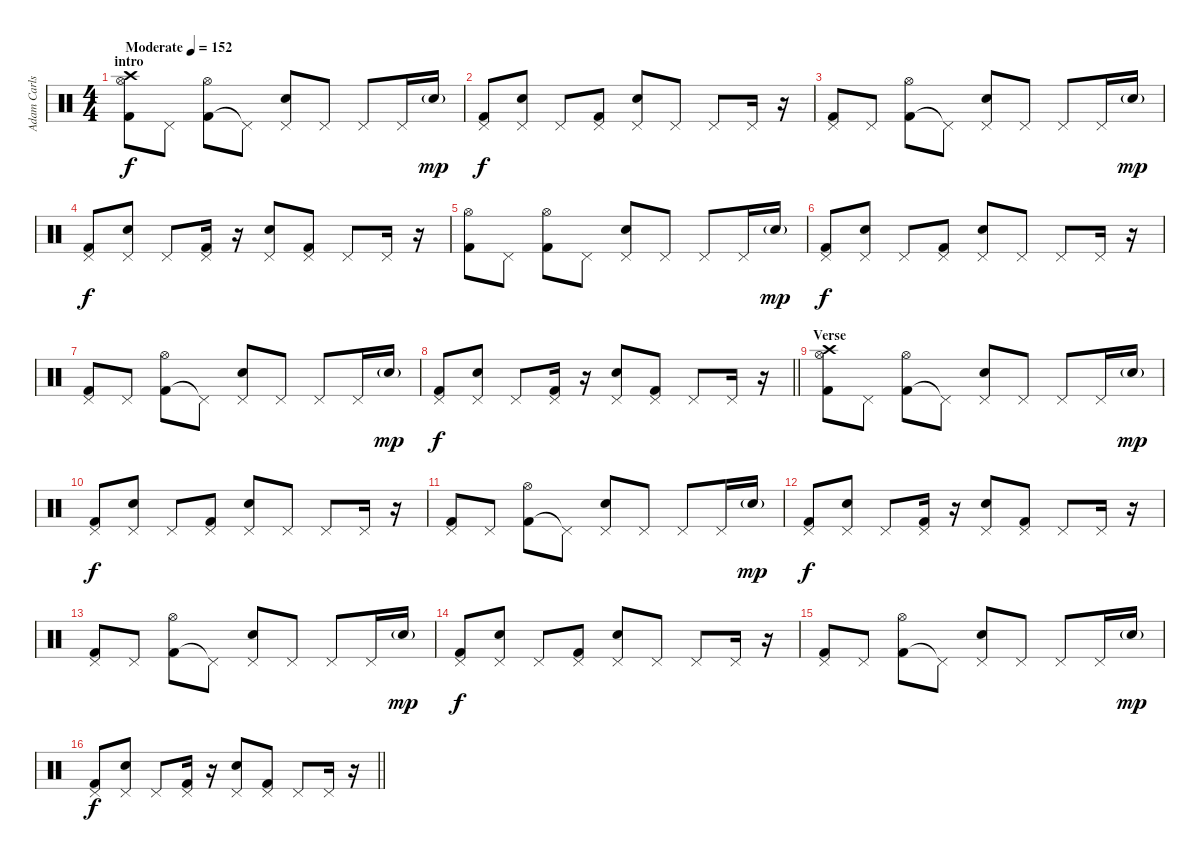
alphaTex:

\track ("Adam Carlson" "Adam Carls") {instrument percussion}
\staff {score}
\articulation defaults
\ts (4 4)
\section ("" "intro")
\tempo (152 "Moderate")
\clef neutral
\ks c
("Crash high (hit)" "Kick (hit) 2" "Hi-Hat (open)").8{dy f} "Pedal Hi-Hat (hit)".8 ("Kick (hit) 2" "Hi-Hat (open)").8 "Pedal Hi-Hat (hit)"{t}.8 ("Snare (hit) 2" "Pedal Hi-Hat (hit)").8 "Pedal Hi-Hat (hit)".8 "Pedal Hi-Hat (hit)".8 "Pedal Hi-Hat (hit)".16 "Snare (hit) 2"{g}.16{dy mp} |
("Kick (hit) 2" "Pedal Hi-Hat (hit)").8{dy f} ("Snare (hit) 2" "Pedal Hi-Hat (hit)").8 "Pedal Hi-Hat (hit)".8 ("Kick (hit) 2" "Pedal Hi-Hat (hit)").8 ("Snare (hit) 2" "Pedal Hi-Hat (hit)").8 "Pedal Hi-Hat (hit)".8 "Pedal Hi-Hat (hit)".8 "Pedal Hi-Hat (hit)".16 r.16 |
("Kick (hit) 2" "Pedal Hi-Hat (hit)").8 "Pedal Hi-Hat (hit)".8 ("Kick (hit) 2" "Hi-Hat (open)").8 "Pedal Hi-Hat (hit)"{t}.8 ("Snare (hit) 2" "Pedal Hi-Hat (hit)").8 "Pedal Hi-Hat (hit)".8 "Pedal Hi-Hat (hit)".8 "Pedal Hi-Hat (hit)".16 "Snare (hit) 2"{g}.16{dy mp} |
("Kick (hit) 2" "Pedal Hi-Hat (hit)").8{dy f} ("Snare (hit) 2" "Pedal Hi-Hat (hit)").8 "Pedal Hi-Hat (hit)".8 ("Kick (hit) 2" "Pedal Hi-Hat (hit)").16 r.16 ("Snare (hit) 2" "Pedal Hi-Hat (hit)").8 ("Kick (hit) 2" "Pedal Hi-Hat (hit)").8 "Pedal Hi-Hat (hit)".8 "Pedal Hi-Hat (hit)".16 r.16 |
("Kick (hit) 2" "Hi-Hat (open)").8 "Pedal Hi-Hat (hit)".8 ("Kick (hit) 2" "Hi-Hat (open)").8 "Pedal Hi-Hat (hit)".8 ("Snare (hit) 2" "Pedal Hi-Hat (hit)").8 "Pedal Hi-Hat (hit)".8 "Pedal Hi-Hat (hit)".8 "Pedal Hi-Hat (hit)".16 "Snare (hit) 2"{g}.16{dy mp} |
("Kick (hit) 2" "Pedal Hi-Hat (hit)").8{dy f} ("Snare (hit) 2" "Pedal Hi-Hat (hit)").8 "Pedal Hi-Hat (hit)".8 ("Kick (hit) 2" "Pedal Hi-Hat (hit)").8 ("Snare (hit) 2" "Pedal Hi-Hat (hit)").8 "Pedal Hi-Hat (hit)".8 "Pedal Hi-Hat (hit)".8 "Pedal Hi-Hat (hit)".16 r.16 |
("Kick (hit) 2" "Pedal Hi-Hat (hit)").8 "Pedal Hi-Hat (hit)".8 ("Kick (hit) 2" "Hi-Hat (open)").8 "Pedal Hi-Hat (hit)"{t}.8 ("Snare (hit) 2" "Pedal Hi-Hat (hit)").8 "Pedal Hi-Hat (hit)".8 "Pedal Hi-Hat (hit)".8 "Pedal Hi-Hat (hit)".16 "Snare (hit) 2"{g}.16{dy mp} |
\barLineRight lightlight
("Kick (hit) 2" "Pedal Hi-Hat (hit)").8{dy f} ("Snare (hit) 2" "Pedal Hi-Hat (hit)").8 "Pedal Hi-Hat (hit)".8 ("Kick (hit) 2" "Pedal Hi-Hat (hit)").16 r.16 ("Snare (hit) 2" "Pedal Hi-Hat (hit)").8 ("Kick (hit) 2" "Pedal Hi-Hat (hit)").8 "Pedal Hi-Hat (hit)".8 "Pedal Hi-Hat (hit)".16 r.16 |
\section ("" "Verse")
("Crash high (hit)" "Kick (hit) 2" "Hi-Hat (open)").8 "Pedal Hi-Hat (hit)".8 ("Kick (hit) 2" "Hi-Hat (open)").8 "Pedal Hi-Hat (hit)"{t}.8 ("Snare (hit) 2" "Pedal Hi-Hat (hit)").8 "Pedal Hi-Hat (hit)".8 "Pedal Hi-Hat (hit)".8 "Pedal Hi-Hat (hit)".16 "Snare (hit) 2"{g}.16{dy mp} |
("Kick (hit) 2" "Pedal Hi-Hat (hit)").8{dy f} ("Snare (hit) 2" "Pedal Hi-Hat (hit)").8 "Pedal Hi-Hat (hit)".8 ("Kick (hit) 2" "Pedal Hi-Hat (hit)").8 ("Snare (hit) 2" "Pedal Hi-Hat (hit)").8 "Pedal Hi-Hat (hit)".8 "Pedal Hi-Hat (hit)".8 "Pedal Hi-Hat (hit)".16 r.16 |
("Kick (hit) 2" "Pedal Hi-Hat (hit)").8 "Pedal Hi-Hat (hit)".8 ("Kick (hit) 2" "Hi-Hat (open)").8 "Pedal Hi-Hat (hit)"{t}.8 ("Snare (hit) 2" "Pedal Hi-Hat (hit)").8 "Pedal Hi-Hat (hit)".8 "Pedal Hi-Hat (hit)".8 "Pedal Hi-Hat (hit)".16 "Snare (hit) 2"{g}.16{dy mp} |
("Kick (hit) 2" "Pedal Hi-Hat (hit)").8{dy f} ("Snare (hit) 2" "Pedal Hi-Hat (hit)").8 "Pedal Hi-Hat (hit)".8 ("Kick (hit) 2" "Pedal Hi-Hat (hit)").16 r.16 ("Snare (hit) 2" "Pedal Hi-Hat (hit)").8 ("Kick (hit) 2" "Pedal Hi-Hat (hit)").8 "Pedal Hi-Hat (hit)".8 "Pedal Hi-Hat (hit)".16 r.16 |
("Kick (hit) 2" "Pedal Hi-Hat (hit)").8 "Pedal Hi-Hat (hit)".8 ("Kick (hit) 2" "Hi-Hat (open)").8 "Pedal Hi-Hat (hit)"{t}.8 ("Snare (hit) 2" "Pedal Hi-Hat (hit)").8 "Pedal Hi-Hat (hit)".8 "Pedal Hi-Hat (hit)".8 "Pedal Hi-Hat (hit)".16 "Snare (hit) 2"{g}.16{dy mp} |
("Kick (hit) 2" "Pedal Hi-Hat (hit)").8{dy f} ("Snare (hit) 2" "Pedal Hi-Hat (hit)").8 "Pedal Hi-Hat (hit)".8 ("Kick (hit) 2" "Pedal Hi-Hat (hit)").8 ("Snare (hit) 2" "Pedal Hi-Hat (hit)").8 "Pedal Hi-Hat (hit)".8 "Pedal Hi-Hat (hit)".8 "Pedal Hi-Hat (hit)".16 r.16 |
("Kick (hit) 2" "Pedal Hi-Hat (hit)").8 "Pedal Hi-Hat (hit)".8 ("Kick (hit) 2" "Hi-Hat (open)").8 "Pedal Hi-Hat (hit)"{t}.8 ("Snare (hit) 2" "Pedal Hi-Hat (hit)").8 "Pedal Hi-Hat (hit)".8 "Pedal Hi-Hat (hit)".8 "Pedal Hi-Hat (hit)".16 "Snare (hit) 2"{g}.16{dy mp} |
\barLineRight lightlight
("Kick (hit) 2" "Pedal Hi-Hat (hit)").8{dy f} ("Snare (hit) 2" "Pedal Hi-Hat (hit)").8 "Pedal Hi-Hat (hit)".8 ("Kick (hit) 2" "Pedal Hi-Hat (hit)").16 r.16 ("Snare (hit) 2" "Pedal Hi-Hat (hit)").8 ("Kick (hit) 2" "Pedal Hi-Hat (hit)").8 "Pedal Hi-Hat (hit)".8 "Pedal Hi-Hat (hit)".16 r.16
